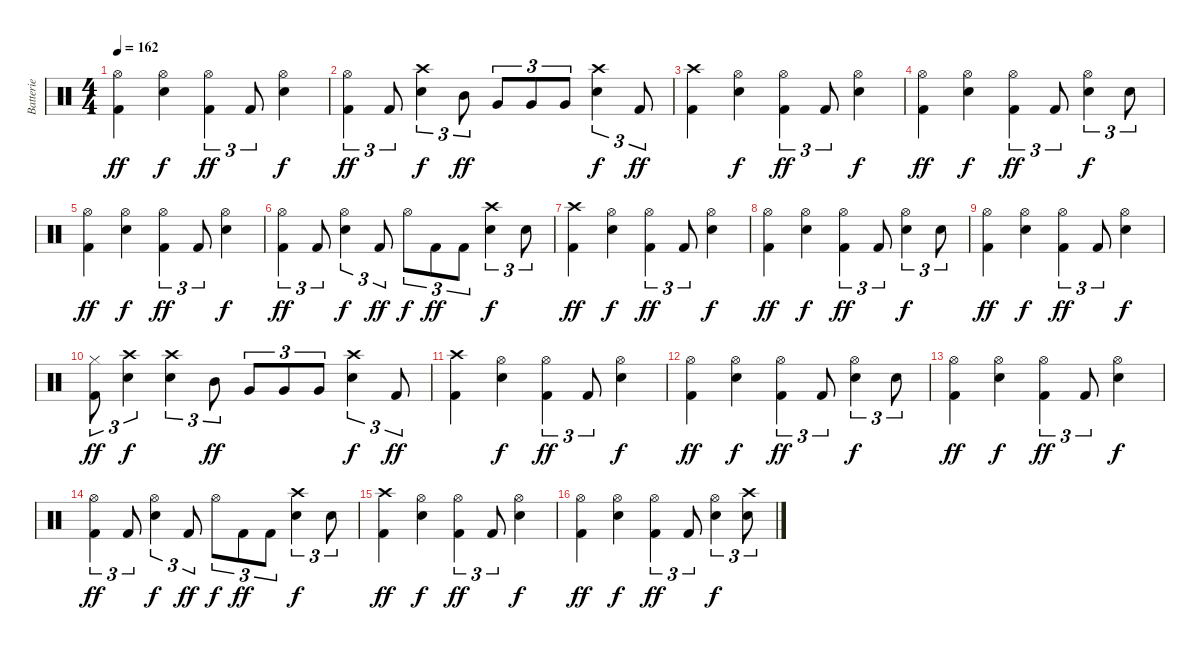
\track ("Batterie" "Batterie") {instrument percussion}
\staff {score}
\articulation defaults
\ts (4 4)
\tempo 162
\clef neutral
\ks c
("Hi-Hat (open)" "Kick (hit) 2").4{dy ff} ("Hi-Hat (open)" "Snare (hit) 2").4{dy f} ("Hi-Hat (open)" "Kick (hit) 2").4{tu (3 2) dy ff} "Kick (hit) 2".8{tu (3 2)} ("Hi-Hat (open)" "Snare (hit) 2").4{dy f} |
("Hi-Hat (open)" "Kick (hit) 2").4{tu (3 2) dy ff} "Kick (hit) 2".8{tu (3 2)} ("Crash high (hit)" "Snare (hit) 2").4{tu (3 2) dy f} "Mid Tom (hit)".8{tu (3 2) dy ff} "Very Low Tom (hit)".8{tu (3 2)} "Very Low Tom (hit)".8{tu (3 2)} "Very Low Tom (hit)".8{tu (3 2)} ("Crash high (hit)" "Snare (hit) 2").4{tu (3 2) dy f} "Kick (hit) 2".8{tu (3 2) dy ff} |
("Crash high (hit)" "Kick (hit) 2").4 ("Hi-Hat (open)" "Snare (hit) 2").4{dy f} ("Hi-Hat (open)" "Kick (hit) 2").4{tu (3 2) dy ff} "Kick (hit) 2".8{tu (3 2)} ("Hi-Hat (open)" "Snare (hit) 2").4{dy f} |
("Hi-Hat (open)" "Kick (hit) 2").4{dy ff} ("Hi-Hat (open)" "Snare (hit) 2").4{dy f} ("Hi-Hat (open)" "Kick (hit) 2").4{tu (3 2) dy ff} "Kick (hit) 2".8{tu (3 2)} ("Hi-Hat (open)" "Snare (hit) 2").4{tu (3 2) dy f} "Snare (hit) 2".8{tu (3 2)} |
("Hi-Hat (open)" "Kick (hit) 2").4{dy ff} ("Hi-Hat (open)" "Snare (hit) 2").4{dy f} ("Hi-Hat (open)" "Kick (hit) 2").4{tu (3 2) dy ff} "Kick (hit) 2".8{tu (3 2)} ("Hi-Hat (open)" "Snare (hit) 2").4{dy f} |
("Hi-Hat (open)" "Kick (hit) 2").4{tu (3 2) dy ff} "Kick (hit) 2".8{tu (3 2)} ("Hi-Hat (open)" "Snare (hit) 2").4{tu (3 2) dy f} "Kick (hit) 2".8{tu (3 2) dy ff} "Hi-Hat (open)".8{tu (3 2) dy f} "Kick (hit) 2".8{tu (3 2) dy ff} "Kick (hit) 2".8{tu (3 2)} ("Crash high (hit)" "Snare (hit) 2").4{tu (3 2) dy f} "Snare (hit) 2".8{tu (3 2)} |
("Crash high (hit)" "Kick (hit) 2").4{dy ff} ("Hi-Hat (open)" "Snare (hit) 2").4{dy f} ("Hi-Hat (open)" "Kick (hit) 2").4{tu (3 2) dy ff} "Kick (hit) 2".8{tu (3 2)} ("Hi-Hat (open)" "Snare (hit) 2").4{dy f} |
("Hi-Hat (open)" "Kick (hit) 2").4{dy ff} ("Hi-Hat (open)" "Snare (hit) 2").4{dy f} ("Hi-Hat (open)" "Kick (hit) 2").4{tu (3 2) dy ff} "Kick (hit) 2".8{tu (3 2)} ("Hi-Hat (open)" "Snare (hit) 2").4{tu (3 2) dy f} "Snare (hit) 2".8{tu (3 2)} |
("Hi-Hat (open)" "Kick (hit) 2").4{dy ff} ("Hi-Hat (open)" "Snare (hit) 2").4{dy f} ("Hi-Hat (open)" "Kick (hit) 2").4{tu (3 2) dy ff} "Kick (hit) 2".8{tu (3 2)} ("Hi-Hat (open)" "Snare (hit) 2").4{dy f} |
("Hi-Hat (closed)" "Kick (hit) 2").8{tu (3 2) dy ff} ("Crash high (hit)" "Snare (hit) 2").4{tu (3 2) dy f} ("Crash high (hit)" "Snare (hit) 2").4{tu (3 2)} "Mid Tom (hit)".8{tu (3 2) dy ff} "Very Low Tom (hit)".8{tu (3 2)} "Very Low Tom (hit)".8{tu (3 2)} "Very Low Tom (hit)".8{tu (3 2)} ("Crash high (hit)" "Snare (hit) 2").4{tu (3 2) dy f} "Kick (hit) 2".8{tu (3 2) dy ff} |
("Crash high (hit)" "Kick (hit) 2").4 ("Hi-Hat (open)" "Snare (hit) 2").4{dy f} ("Hi-Hat (open)" "Kick (hit) 2").4{tu (3 2) dy ff} "Kick (hit) 2".8{tu (3 2)} ("Hi-Hat (open)" "Snare (hit) 2").4{dy f} |
("Hi-Hat (open)" "Kick (hit) 2").4{dy ff} ("Hi-Hat (open)" "Snare (hit) 2").4{dy f} ("Hi-Hat (open)" "Kick (hit) 2").4{tu (3 2) dy ff} "Kick (hit) 2".8{tu (3 2)} ("Hi-Hat (open)" "Snare (hit) 2").4{tu (3 2) dy f} "Snare (hit) 2".8{tu (3 2)} |
("Hi-Hat (open)" "Kick (hit) 2").4{dy ff} ("Hi-Hat (open)" "Snare (hit) 2").4{dy f} ("Hi-Hat (open)" "Kick (hit) 2").4{tu (3 2) dy ff} "Kick (hit) 2".8{tu (3 2)} ("Hi-Hat (open)" "Snare (hit) 2").4{dy f} |
("Hi-Hat (open)" "Kick (hit) 2").4{tu (3 2) dy ff} "Kick (hit) 2".8{tu (3 2)} ("Hi-Hat (open)" "Snare (hit) 2").4{tu (3 2) dy f} "Kick (hit) 2".8{tu (3 2) dy ff} "Hi-Hat (open)".8{tu (3 2) dy f} "Kick (hit) 2".8{tu (3 2) dy ff} "Kick (hit) 2".8{tu (3 2)} ("Crash high (hit)" "Snare (hit) 2").4{tu (3 2) dy f} "Snare (hit) 2".8{tu (3 2)} |
("Crash high (hit)" "Kick (hit) 2").4{dy ff} ("Hi-Hat (open)" "Snare (hit) 2").4{dy f} ("Hi-Hat (open)" "Kick (hit) 2").4{tu (3 2) dy ff} "Kick (hit) 2".8{tu (3 2)} ("Hi-Hat (open)" "Snare (hit) 2").4{dy f} |
("Hi-Hat (open)" "Kick (hit) 2").4{dy ff} ("Hi-Hat (open)" "Snare (hit) 2").4{dy f} ("Hi-Hat (open)" "Kick (hit) 2").4{tu (3 2) dy ff} "Kick (hit) 2".8{tu (3 2)} ("Hi-Hat (open)" "Snare (hit) 2").4{tu (3 2) dy f} ("Crash high (hit)" "Snare (hit) 2").8{tu (3 2)}
